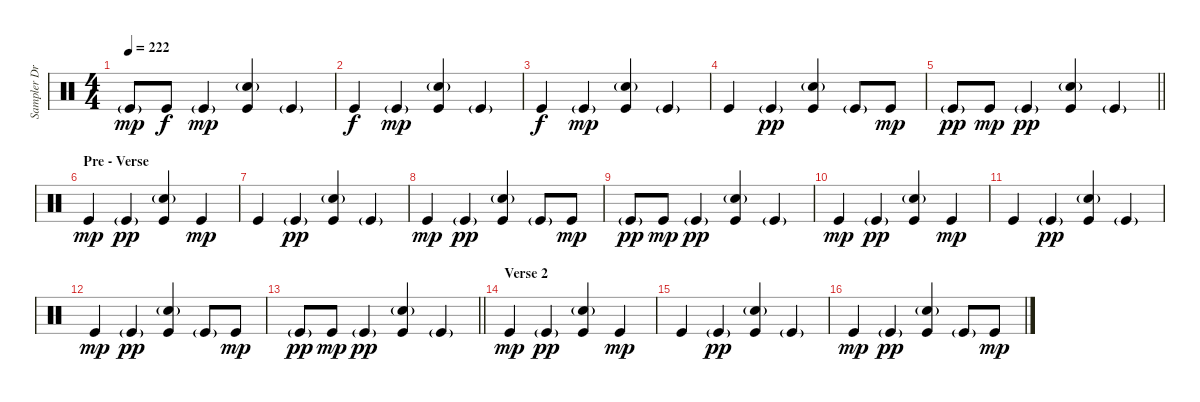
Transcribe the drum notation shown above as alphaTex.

\track ("Sampler Drums 1" "Sampler Dr") {instrument percussion}
\staff {score}
\articulation defaults
\ts (4 4)
\tempo 222
\clef neutral
\ks c "Kick (hit)"{g}.8{dy mp} "Kick (hit)".8{dy f} "Kick (hit)"{g}.4{dy mp}
("Kick (hit)" "Snare (hit) 2"{g}).4 "Kick (hit)"{g}.4 |
"Kick (hit)".4{dy f} "Kick (hit)"{g}.4{dy mp} ("Kick (hit)" "Snare (hit) 2"{g}).4 "Kick (hit)"{g}.4 |
"Kick (hit)".4{dy f} "Kick (hit)"{g}.4{dy mp} ("Kick (hit)" "Snare (hit) 2"{g}).4 "Kick (hit)"{g}.4 |
"Kick (hit)".4 "Kick (hit)"{g}.4{dy pp} ("Kick (hit)" "Snare (hit) 2"{g}).4 "Kick (hit)"{g}.8 "Kick (hit)".8{dy mp} |
\barLineRight lightlight "Kick (hit)"{g}.8{dy pp} "Kick (hit)".8{dy mp} "Kick (hit)"{g}.4{dy pp}
("Kick (hit)" "Snare (hit) 2"{g}).4 "Kick (hit)"{g}.4 |
\section ("" "Pre - Verse")
"Kick (hit)".4{dy mp} "Kick (hit)"{g}.4{dy pp} ("Kick (hit)" "Snare (hit) 2"{g}).4 "Kick (hit)".4{dy mp} |
"Kick (hit)".4 "Kick (hit)"{g}.4{dy pp} ("Kick (hit)" "Snare (hit) 2"{g}).4 "Kick (hit)"{g}.4 |
"Kick (hit)".4{dy mp} "Kick (hit)"{g}.4{dy pp} ("Kick (hit)" "Snare (hit) 2"{g}).4 "Kick (hit)"{g}.8 "Kick (hit)".8{dy mp} |
"Kick (hit)"{g}.8{dy pp} "Kick (hit)".8{dy mp} "Kick (hit)"{g}.4{dy pp} ("Kick (hit)" "Snare (hit) 2"{g}).4 "Kick (hit)"{g}.4 |
"Kick (hit)".4{dy mp} "Kick (hit)"{g}.4{dy pp} ("Kick (hit)" "Snare (hit) 2"{g}).4 "Kick (hit)".4{dy mp} |
"Kick (hit)".4 "Kick (hit)"{g}.4{dy pp} ("Kick (hit)" "Snare (hit) 2"{g}).4 "Kick (hit)"{g}.4 |
"Kick (hit)".4{dy mp} "Kick (hit)"{g}.4{dy pp} ("Kick (hit)" "Snare (hit) 2"{g}).4 "Kick (hit)"{g}.8 "Kick (hit)".8{dy mp} |
\barLineRight lightlight "Kick (hit)"{g}.8{dy pp} "Kick (hit)".8{dy mp} "Kick (hit)"{g}.4{dy pp}
("Kick (hit)" "Snare (hit) 2"{g}).4 "Kick (hit)"{g}.4 |
\section ("" "Verse 2")
"Kick (hit)".4{dy mp} "Kick (hit)"{g}.4{dy pp} ("Kick (hit)" "Snare (hit) 2"{g}).4 "Kick (hit)".4{dy mp} |
"Kick (hit)".4 "Kick (hit)"{g}.4{dy pp} ("Kick (hit)" "Snare (hit) 2"{g}).4 "Kick (hit)"{g}.4 |
"Kick (hit)".4{dy mp} "Kick (hit)"{g}.4{dy pp} ("Kick (hit)" "Snare (hit) 2"{g}).4 "Kick (hit)"{g}.8 "Kick (hit)".8{dy mp}
